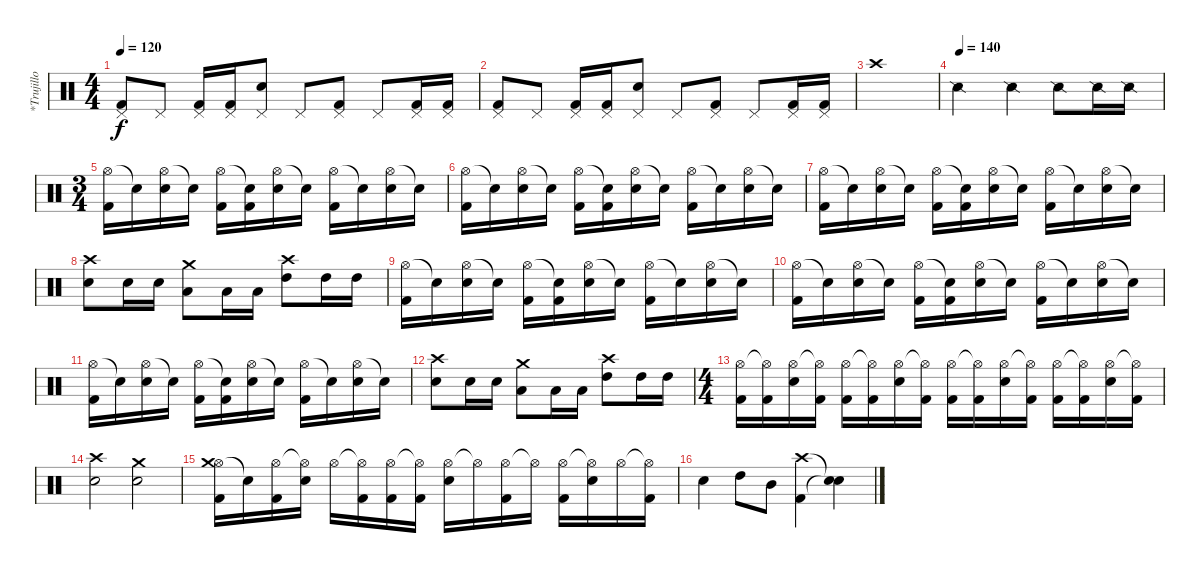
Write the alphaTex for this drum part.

\track ("*Trujillo" "*Trujillo") {instrument percussion}
\staff {score}
\articulation defaults
\ts (4 4)
\tempo 120
\clef neutral
\ks c
("Pedal Hi-Hat (hit)" "Kick (hit) 2").8{dy f} "Pedal Hi-Hat (hit)".8 ("Pedal Hi-Hat (hit)" "Kick (hit) 2").16 ("Pedal Hi-Hat (hit)"{x} "Kick (hit) 2"{x}).16 ("Pedal Hi-Hat (hit)" "Electric Snare (hit)").8 "Pedal Hi-Hat (hit)".8 ("Pedal Hi-Hat (hit)" "Kick (hit) 2").8 "Pedal Hi-Hat (hit)".8 ("Pedal Hi-Hat (hit)" "Kick (hit) 2").16 ("Pedal Hi-Hat (hit)" "Kick (hit) 2").16 |
("Pedal Hi-Hat (hit)" "Kick (hit) 2").8 "Pedal Hi-Hat (hit)".8 ("Pedal Hi-Hat (hit)" "Kick (hit) 2").16 ("Pedal Hi-Hat (hit)"{x} "Kick (hit) 2"{x}).16 ("Pedal Hi-Hat (hit)" "Electric Snare (hit)").8 "Pedal Hi-Hat (hit)".8 ("Pedal Hi-Hat (hit)" "Kick (hit) 2").8 "Pedal Hi-Hat (hit)".8 ("Pedal Hi-Hat (hit)" "Kick (hit) 2").16 ("Pedal Hi-Hat (hit)" "Kick (hit) 2").16 |
"Crash high (hit)".1 |
\tempo (140)
"Snare (side stick) 2".2 "Snare (side stick) 2".4 "Snare (side stick) 2".8 "Snare (side stick) 2".16 "Snare (side stick) 2".16 |
\ts (3 4)
("Hi-Hat (open)" "Kick (hit) 2").16 "Snare (hit)"{t}.16 ("Hi-Hat (open)" "Electric Snare (hit)").16 "Snare (hit)"{t}.16 ("Hi-Hat (open)" "Kick (hit) 2").16 ("Snare (hit)"{t} "Kick (hit) 2").16 ("Hi-Hat (open)" "Electric Snare (hit)").16 "Snare (hit)"{t}.16 ("Hi-Hat (open)" "Kick (hit) 2").16 "Snare (hit)"{t}.16 ("Hi-Hat (open)" "Electric Snare (hit)").16 "Snare (hit)"{t}.16 |
("Hi-Hat (open)" "Kick (hit) 2").16 "Snare (hit)"{t}.16 ("Hi-Hat (open)" "Electric Snare (hit)").16 "Snare (hit)"{t}.16 ("Hi-Hat (open)" "Kick (hit) 2").16 ("Snare (hit)"{t} "Kick (hit) 2").16 ("Hi-Hat (open)" "Electric Snare (hit)").16 "Snare (hit)"{t}.16 ("Hi-Hat (open)" "Kick (hit) 2").16 "Snare (hit)"{t}.16 ("Hi-Hat (open)" "Electric Snare (hit)").16 "Snare (hit)"{t}.16 |
("Hi-Hat (open)" "Kick (hit) 2").16 "Snare (hit)"{t}.16 ("Hi-Hat (open)" "Electric Snare (hit)").16 "Snare (hit)"{t}.16 ("Hi-Hat (open)" "Kick (hit) 2").16 ("Snare (hit)"{t} "Kick (hit) 2").16 ("Hi-Hat (open)" "Electric Snare (hit)").16 "Snare (hit)"{t}.16 ("Hi-Hat (open)" "Kick (hit) 2").16 "Snare (hit)"{t}.16 ("Hi-Hat (open)" "Electric Snare (hit)").16 "Snare (hit)"{t}.16 |
("Crash high (hit)" "Electric Snare (hit)").8 "Electric Snare (hit)".16 "Electric Snare (hit)".16 ("Crash medium (hit)" "Low Tom (hit)").8 "Low Tom (hit)".16 "Low Tom (hit)".16 ("Crash high (hit)" "High Tom (hit)").8 "High Tom (hit)".16 "High Tom (hit)".16 |
("Hi-Hat (open)" "Kick (hit) 2").16 "Snare (hit)"{t}.16 ("Hi-Hat (open)" "Electric Snare (hit)").16 "Snare (hit)"{t}.16 ("Hi-Hat (open)" "Kick (hit) 2").16 ("Snare (hit)"{t} "Kick (hit) 2").16 ("Hi-Hat (open)" "Electric Snare (hit)").16 "Snare (hit)"{t}.16 ("Hi-Hat (open)" "Kick (hit) 2").16 "Snare (hit)"{t}.16 ("Hi-Hat (open)" "Electric Snare (hit)").16 "Snare (hit)"{t}.16 |
("Hi-Hat (open)" "Kick (hit) 2").16 "Snare (hit)"{t}.16 ("Hi-Hat (open)" "Electric Snare (hit)").16 "Snare (hit)"{t}.16 ("Hi-Hat (open)" "Kick (hit) 2").16 ("Snare (hit)"{t} "Kick (hit) 2").16 ("Hi-Hat (open)" "Electric Snare (hit)").16 "Snare (hit)"{t}.16 ("Hi-Hat (open)" "Kick (hit) 2").16 "Snare (hit)"{t}.16 ("Hi-Hat (open)" "Electric Snare (hit)").16 "Snare (hit)"{t}.16 |
("Hi-Hat (open)" "Kick (hit) 2").16 "Snare (hit)"{t}.16 ("Hi-Hat (open)" "Electric Snare (hit)").16 "Snare (hit)"{t}.16 ("Hi-Hat (open)" "Kick (hit) 2").16 ("Snare (hit)"{t} "Kick (hit) 2").16 ("Hi-Hat (open)" "Electric Snare (hit)").16 "Snare (hit)"{t}.16 ("Hi-Hat (open)" "Kick (hit) 2").16 "Snare (hit)"{t}.16 ("Hi-Hat (open)" "Electric Snare (hit)").16 "Snare (hit)"{t}.16 |
("Crash high (hit)" "Electric Snare (hit)").8 "Electric Snare (hit)".16 "Electric Snare (hit)".16 ("Crash medium (hit)" "Low Tom (hit)").8 "Low Tom (hit)".16 "Low Tom (hit)".16 ("Crash high (hit)" "High Tom (hit)").8 "High Tom (hit)".16 "High Tom (hit)".16 |
\ts (4 4)
("Hi-Hat (open)" "Kick (hit) 2").16 ("Hi-Hat (open)"{t} "Kick (hit) 2").16 ("Hi-Hat (open)" "Electric Snare (hit)").16 ("Hi-Hat (open)"{t} "Kick (hit) 2").16 ("Hi-Hat (open)" "Kick (hit) 2").16 ("Hi-Hat (open)"{t} "Kick (hit) 2").16 ("Hi-Hat (open)" "Electric Snare (hit)").16 ("Hi-Hat (open)"{t} "Kick (hit) 2").16 ("Hi-Hat (open)" "Kick (hit) 2").16 ("Hi-Hat (open)"{t} "Kick (hit) 2").16 ("Hi-Hat (open)" "Electric Snare (hit)").16 ("Hi-Hat (open)"{t} "Kick (hit) 2").16 ("Hi-Hat (open)" "Kick (hit) 2").16 ("Hi-Hat (open)"{t} "Kick (hit) 2").16 ("Hi-Hat (open)" "Electric Snare (hit)").16 ("Hi-Hat (open)"{t} "Kick (hit) 2").16 |
("Crash high (hit)" "Electric Snare (hit)").2 ("Crash medium (hit)" "Snare (hit) 2").2 |
("Hi-Hat (open)" "Crash medium (hit)"{x} "Kick (hit) 2").16 "Snare (hit)"{t}.16 ("Hi-Hat (open)" "Kick (hit) 2").16 ("Hi-Hat (open)"{t} "Electric Snare (hit)").16 "Hi-Hat (open)".16 ("Hi-Hat (open)"{t} "Kick (hit) 2").16 ("Hi-Hat (open)" "Kick (hit) 2"{x}).16 ("Hi-Hat (open)"{t} "Kick (hit) 2").16 ("Hi-Hat (open)" "Electric Snare (hit)").16 "Hi-Hat (open)"{t}.16 ("Hi-Hat (open)" "Kick (hit) 2").16 "Hi-Hat (open)"{t}.16 ("Hi-Hat (open)" "Kick (hit) 2").16 ("Hi-Hat (open)"{t} "Electric Snare (hit)").16 "Hi-Hat (open)".16 ("Hi-Hat (open)"{t} "Kick (hit) 2").16 |
"Electric Snare (hit)".4 "High Tom (hit)".8 "Mid Tom (hit)".8 ("Crash high (hit)" "Kick (hit) 2").4 ("Electric Snare (hit)"{t} "Snare (hit)"{t}).4
